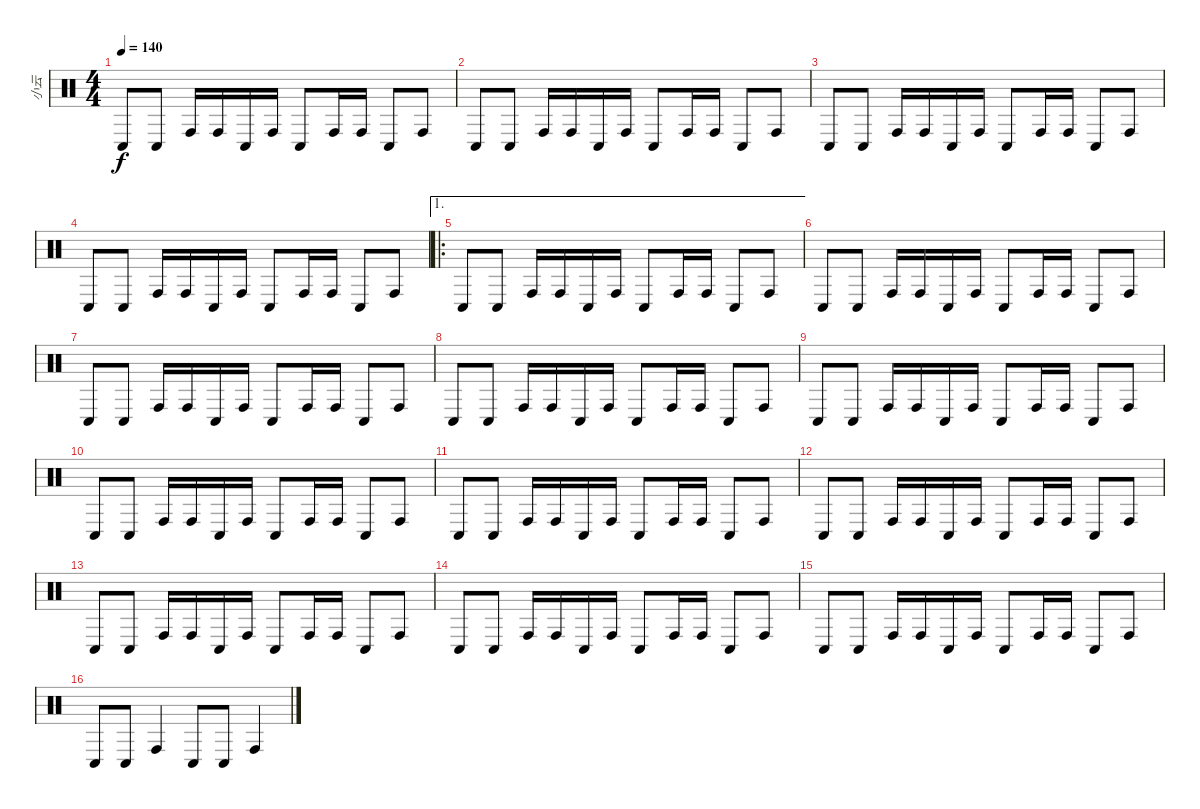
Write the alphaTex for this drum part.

\track ("小云" "小云") {instrument percussion}
\staff {score}
\articulation defaults
\ts (4 4)
\tempo 140
\clef neutral
\ks c "Conga low (hit)".8{dy f} "Conga low (hit)".8 "Conga high (hit)".16 "Conga high (hit)".16 "Conga low (hit)".16 "Conga high (hit)".16 "Conga low (hit)".8 "Conga high (hit)".16 "Conga high (hit)".16 "Conga low (hit)".8 "Conga high (hit)".8
|
"Conga low (hit)".8 "Conga low (hit)".8 "Conga high (hit)".16 "Conga high (hit)".16 "Conga low (hit)".16 "Conga high (hit)".16 "Conga low (hit)".8 "Conga high (hit)".16 "Conga high (hit)".16 "Conga low (hit)".8 "Conga high (hit)".8 |
"Conga low (hit)".8 "Conga low (hit)".8 "Conga high (hit)".16 "Conga high (hit)".16 "Conga low (hit)".16 "Conga high (hit)".16 "Conga low (hit)".8 "Conga high (hit)".16 "Conga high (hit)".16 "Conga low (hit)".8 "Conga high (hit)".8 |
"Conga low (hit)".8 "Conga low (hit)".8 "Conga high (hit)".16 "Conga high (hit)".16 "Conga low (hit)".16 "Conga high (hit)".16 "Conga low (hit)".8 "Conga high (hit)".16 "Conga high (hit)".16 "Conga low (hit)".8 "Conga high (hit)".8 |
\ae 1
\ro "Conga low (hit)".8 "Conga low (hit)".8 "Conga high (hit)".16 "Conga high (hit)".16 "Conga low (hit)".16 "Conga high (hit)".16 "Conga low (hit)".8 "Conga high (hit)".16 "Conga high (hit)".16 "Conga low (hit)".8 "Conga high (hit)".8
|
"Conga low (hit)".8 "Conga low (hit)".8 "Conga high (hit)".16 "Conga high (hit)".16 "Conga low (hit)".16 "Conga high (hit)".16 "Conga low (hit)".8 "Conga high (hit)".16 "Conga high (hit)".16 "Conga low (hit)".8 "Conga high (hit)".8 |
"Conga low (hit)".8 "Conga low (hit)".8 "Conga high (hit)".16 "Conga high (hit)".16 "Conga low (hit)".16 "Conga high (hit)".16 "Conga low (hit)".8 "Conga high (hit)".16 "Conga high (hit)".16 "Conga low (hit)".8 "Conga high (hit)".8 |
"Conga low (hit)".8 "Conga low (hit)".8 "Conga high (hit)".16 "Conga high (hit)".16 "Conga low (hit)".16 "Conga high (hit)".16 "Conga low (hit)".8 "Conga high (hit)".16 "Conga high (hit)".16 "Conga low (hit)".8 "Conga high (hit)".8 |
"Conga low (hit)".8 "Conga low (hit)".8 "Conga high (hit)".16 "Conga high (hit)".16 "Conga low (hit)".16 "Conga high (hit)".16 "Conga low (hit)".8 "Conga high (hit)".16 "Conga high (hit)".16 "Conga low (hit)".8 "Conga high (hit)".8 |
"Conga low (hit)".8 "Conga low (hit)".8 "Conga high (hit)".16 "Conga high (hit)".16 "Conga low (hit)".16 "Conga high (hit)".16 "Conga low (hit)".8 "Conga high (hit)".16 "Conga high (hit)".16 "Conga low (hit)".8 "Conga high (hit)".8 |
"Conga low (hit)".8 "Conga low (hit)".8 "Conga high (hit)".16 "Conga high (hit)".16 "Conga low (hit)".16 "Conga high (hit)".16 "Conga low (hit)".8 "Conga high (hit)".16 "Conga high (hit)".16 "Conga low (hit)".8 "Conga high (hit)".8 |
"Conga low (hit)".8 "Conga low (hit)".8 "Conga high (hit)".16 "Conga high (hit)".16 "Conga low (hit)".16 "Conga high (hit)".16 "Conga low (hit)".8 "Conga high (hit)".16 "Conga high (hit)".16 "Conga low (hit)".8 "Conga high (hit)".8 |
"Conga low (hit)".8 "Conga low (hit)".8 "Conga high (hit)".16 "Conga high (hit)".16 "Conga low (hit)".16 "Conga high (hit)".16 "Conga low (hit)".8 "Conga high (hit)".16 "Conga high (hit)".16 "Conga low (hit)".8 "Conga high (hit)".8 |
"Conga low (hit)".8 "Conga low (hit)".8 "Conga high (hit)".16 "Conga high (hit)".16 "Conga low (hit)".16 "Conga high (hit)".16 "Conga low (hit)".8 "Conga high (hit)".16 "Conga high (hit)".16 "Conga low (hit)".8 "Conga high (hit)".8 |
"Conga low (hit)".8 "Conga low (hit)".8 "Conga high (hit)".16 "Conga high (hit)".16 "Conga low (hit)".16 "Conga high (hit)".16 "Conga low (hit)".8 "Conga high (hit)".16 "Conga high (hit)".16 "Conga low (hit)".8 "Conga high (hit)".8 |
"Conga low (hit)".8 "Conga low (hit)".8 "Conga high (hit)".4 "Conga low (hit)".8 "Conga low (hit)".8 "Conga high (hit)".4
